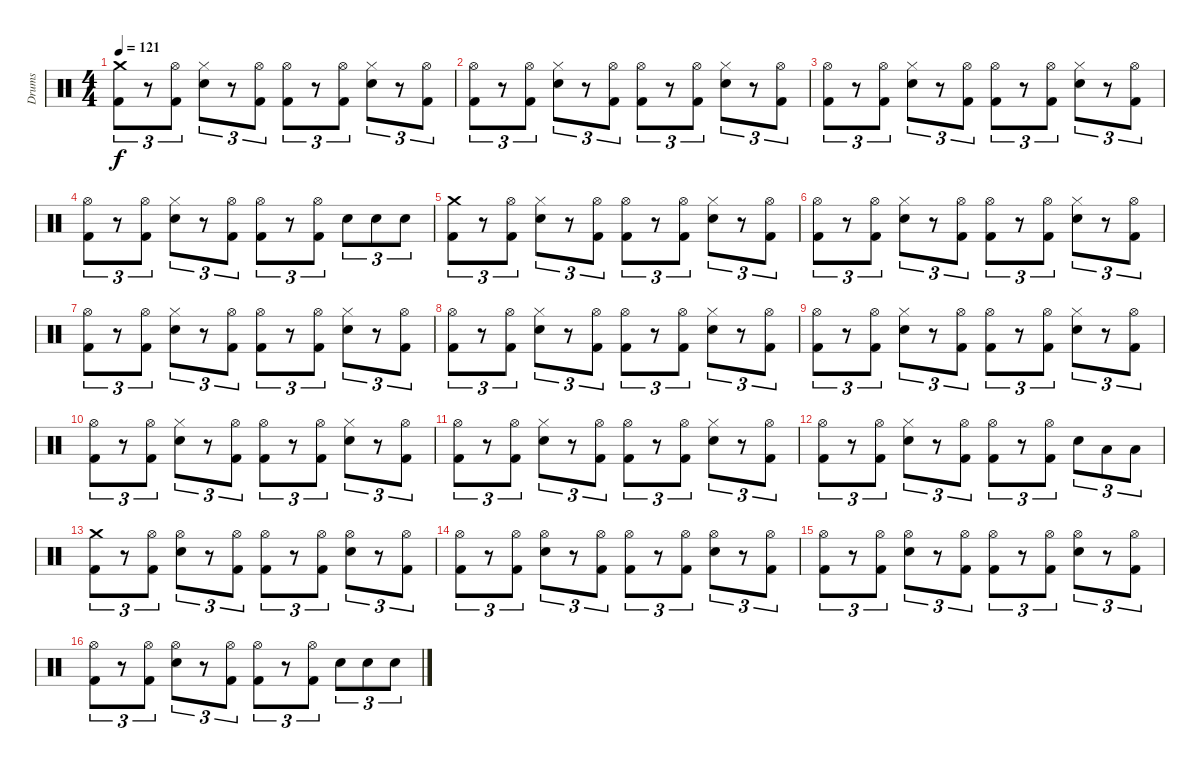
\track ("Drums" "Drums") {instrument percussion}
\staff {score}
\articulation defaults
\ts (4 4)
\tempo 121
\clef neutral
\ks c
("Crash medium (hit)" "Kick (hit) 2").8{tu (3 2) dy f} r.8{tu (3 2)} ("Hi-Hat (open)" "Kick (hit) 2").8{tu (3 2)} ("Hi-Hat (closed)" "Snare (hit) 2").8{tu (3 2)} r.8{tu (3 2)} ("Hi-Hat (open)" "Kick (hit) 2").8{tu (3 2)} ("Hi-Hat (open)" "Kick (hit) 2").8{tu (3 2)} r.8{tu (3 2)} ("Hi-Hat (open)" "Kick (hit) 2").8{tu (3 2)} ("Hi-Hat (closed)" "Snare (hit) 2").8{tu (3 2)} r.8{tu (3 2)} ("Hi-Hat (open)" "Kick (hit) 2").8{tu (3 2)} |
("Hi-Hat (open)" "Kick (hit) 2").8{tu (3 2)} r.8{tu (3 2)} ("Hi-Hat (open)" "Kick (hit) 2").8{tu (3 2)} ("Hi-Hat (closed)" "Snare (hit) 2").8{tu (3 2)} r.8{tu (3 2)} ("Hi-Hat (open)" "Kick (hit) 2").8{tu (3 2)} ("Hi-Hat (open)" "Kick (hit) 2").8{tu (3 2)} r.8{tu (3 2)} ("Hi-Hat (open)" "Kick (hit) 2").8{tu (3 2)} ("Hi-Hat (closed)" "Snare (hit) 2").8{tu (3 2)} r.8{tu (3 2)} ("Hi-Hat (open)" "Kick (hit) 2").8{tu (3 2)} |
("Hi-Hat (open)" "Kick (hit) 2").8{tu (3 2)} r.8{tu (3 2)} ("Hi-Hat (open)" "Kick (hit) 2").8{tu (3 2)} ("Hi-Hat (closed)" "Snare (hit) 2").8{tu (3 2)} r.8{tu (3 2)} ("Hi-Hat (open)" "Kick (hit) 2").8{tu (3 2)} ("Hi-Hat (open)" "Kick (hit) 2").8{tu (3 2)} r.8{tu (3 2)} ("Hi-Hat (open)" "Kick (hit) 2").8{tu (3 2)} ("Hi-Hat (closed)" "Snare (hit) 2").8{tu (3 2)} r.8{tu (3 2)} ("Hi-Hat (open)" "Kick (hit) 2").8{tu (3 2)} |
("Hi-Hat (open)" "Kick (hit) 2").8{tu (3 2)} r.8{tu (3 2)} ("Hi-Hat (open)" "Kick (hit) 2").8{tu (3 2)} ("Hi-Hat (closed)" "Snare (hit) 2").8{tu (3 2)} r.8{tu (3 2)} ("Hi-Hat (open)" "Kick (hit) 2").8{tu (3 2)} ("Hi-Hat (open)" "Kick (hit) 2").8{tu (3 2)} r.8{tu (3 2)} ("Hi-Hat (open)" "Kick (hit) 2").8{tu (3 2)} "Snare (hit) 2".8{tu (3 2)} "Snare (hit) 2".8{tu (3 2)} "Snare (hit) 2".8{tu (3 2)} |
("Crash medium (hit)" "Kick (hit) 2").8{tu (3 2)} r.8{tu (3 2)} ("Hi-Hat (open)" "Kick (hit) 2").8{tu (3 2)} ("Hi-Hat (closed)" "Snare (hit) 2").8{tu (3 2)} r.8{tu (3 2)} ("Hi-Hat (open)" "Kick (hit) 2").8{tu (3 2)} ("Hi-Hat (open)" "Kick (hit) 2").8{tu (3 2)} r.8{tu (3 2)} ("Hi-Hat (open)" "Kick (hit) 2").8{tu (3 2)} ("Hi-Hat (closed)" "Snare (hit) 2").8{tu (3 2)} r.8{tu (3 2)} ("Hi-Hat (open)" "Kick (hit) 2").8{tu (3 2)} |
("Hi-Hat (open)" "Kick (hit) 2").8{tu (3 2)} r.8{tu (3 2)} ("Hi-Hat (open)" "Kick (hit) 2").8{tu (3 2)} ("Hi-Hat (closed)" "Snare (hit) 2").8{tu (3 2)} r.8{tu (3 2)} ("Hi-Hat (open)" "Kick (hit) 2").8{tu (3 2)} ("Hi-Hat (open)" "Kick (hit) 2").8{tu (3 2)} r.8{tu (3 2)} ("Hi-Hat (open)" "Kick (hit) 2").8{tu (3 2)} ("Hi-Hat (closed)" "Snare (hit) 2").8{tu (3 2)} r.8{tu (3 2)} ("Hi-Hat (open)" "Kick (hit) 2").8{tu (3 2)} |
("Hi-Hat (open)" "Kick (hit) 2").8{tu (3 2)} r.8{tu (3 2)} ("Hi-Hat (open)" "Kick (hit) 2").8{tu (3 2)} ("Hi-Hat (closed)" "Snare (hit) 2").8{tu (3 2)} r.8{tu (3 2)} ("Hi-Hat (open)" "Kick (hit) 2").8{tu (3 2)} ("Hi-Hat (open)" "Kick (hit) 2").8{tu (3 2)} r.8{tu (3 2)} ("Hi-Hat (open)" "Kick (hit) 2").8{tu (3 2)} ("Hi-Hat (closed)" "Snare (hit) 2").8{tu (3 2)} r.8{tu (3 2)} ("Hi-Hat (open)" "Kick (hit) 2").8{tu (3 2)} |
("Hi-Hat (open)" "Kick (hit) 2").8{tu (3 2)} r.8{tu (3 2)} ("Hi-Hat (open)" "Kick (hit) 2").8{tu (3 2)} ("Hi-Hat (closed)" "Snare (hit) 2").8{tu (3 2)} r.8{tu (3 2)} ("Hi-Hat (open)" "Kick (hit) 2").8{tu (3 2)} ("Hi-Hat (open)" "Kick (hit) 2").8{tu (3 2)} r.8{tu (3 2)} ("Hi-Hat (open)" "Kick (hit) 2").8{tu (3 2)} ("Hi-Hat (closed)" "Snare (hit) 2").8{tu (3 2)} r.8{tu (3 2)} ("Hi-Hat (open)" "Kick (hit) 2").8{tu (3 2)} |
("Hi-Hat (open)" "Kick (hit) 2").8{tu (3 2)} r.8{tu (3 2)} ("Hi-Hat (open)" "Kick (hit) 2").8{tu (3 2)} ("Hi-Hat (closed)" "Snare (hit) 2").8{tu (3 2)} r.8{tu (3 2)} ("Hi-Hat (open)" "Kick (hit) 2").8{tu (3 2)} ("Hi-Hat (open)" "Kick (hit) 2").8{tu (3 2)} r.8{tu (3 2)} ("Hi-Hat (open)" "Kick (hit) 2").8{tu (3 2)} ("Hi-Hat (closed)" "Snare (hit) 2").8{tu (3 2)} r.8{tu (3 2)} ("Hi-Hat (open)" "Kick (hit) 2").8{tu (3 2)} |
("Hi-Hat (open)" "Kick (hit) 2").8{tu (3 2)} r.8{tu (3 2)} ("Hi-Hat (open)" "Kick (hit) 2").8{tu (3 2)} ("Hi-Hat (closed)" "Snare (hit) 2").8{tu (3 2)} r.8{tu (3 2)} ("Hi-Hat (open)" "Kick (hit) 2").8{tu (3 2)} ("Hi-Hat (open)" "Kick (hit) 2").8{tu (3 2)} r.8{tu (3 2)} ("Hi-Hat (open)" "Kick (hit) 2").8{tu (3 2)} ("Hi-Hat (closed)" "Snare (hit) 2").8{tu (3 2)} r.8{tu (3 2)} ("Hi-Hat (open)" "Kick (hit) 2").8{tu (3 2)} |
("Hi-Hat (open)" "Kick (hit) 2").8{tu (3 2)} r.8{tu (3 2)} ("Hi-Hat (open)" "Kick (hit) 2").8{tu (3 2)} ("Hi-Hat (closed)" "Snare (hit) 2").8{tu (3 2)} r.8{tu (3 2)} ("Hi-Hat (open)" "Kick (hit) 2").8{tu (3 2)} ("Hi-Hat (open)" "Kick (hit) 2").8{tu (3 2)} r.8{tu (3 2)} ("Hi-Hat (open)" "Kick (hit) 2").8{tu (3 2)} ("Hi-Hat (closed)" "Snare (hit) 2").8{tu (3 2)} r.8{tu (3 2)} ("Hi-Hat (open)" "Kick (hit) 2").8{tu (3 2)} |
("Hi-Hat (open)" "Kick (hit) 2").8{tu (3 2)} r.8{tu (3 2)} ("Hi-Hat (open)" "Kick (hit) 2").8{tu (3 2)} ("Hi-Hat (closed)" "Snare (hit) 2").8{tu (3 2)} r.8{tu (3 2)} ("Hi-Hat (open)" "Kick (hit) 2").8{tu (3 2)} ("Hi-Hat (open)" "Kick (hit) 2").8{tu (3 2)} r.8{tu (3 2)} ("Hi-Hat (open)" "Kick (hit) 2").8{tu (3 2)} "Snare (hit) 2".8{tu (3 2)} "Low Tom (hit)".8{tu (3 2)} "Low Floor Tom (hit)".8{tu (3 2)} |
("Crash medium (hit)" "Kick (hit) 2").8{tu (3 2)} r.8{tu (3 2)} ("Hi-Hat (open)" "Kick (hit) 2").8{tu (3 2)} ("Hi-Hat (open)" "Snare (hit) 2").8{tu (3 2)} r.8{tu (3 2)} ("Hi-Hat (open)" "Kick (hit) 2").8{tu (3 2)} ("Hi-Hat (open)" "Kick (hit) 2").8{tu (3 2)} r.8{tu (3 2)} ("Hi-Hat (open)" "Kick (hit) 2").8{tu (3 2)} ("Hi-Hat (open)" "Snare (hit) 2").8{tu (3 2)} r.8{tu (3 2)} ("Hi-Hat (open)" "Kick (hit) 2").8{tu (3 2)} |
("Hi-Hat (open)" "Kick (hit) 2").8{tu (3 2)} r.8{tu (3 2)} ("Hi-Hat (open)" "Kick (hit) 2").8{tu (3 2)} ("Hi-Hat (open)" "Snare (hit) 2").8{tu (3 2)} r.8{tu (3 2)} ("Hi-Hat (open)" "Kick (hit) 2").8{tu (3 2)} ("Hi-Hat (open)" "Kick (hit) 2").8{tu (3 2)} r.8{tu (3 2)} ("Hi-Hat (open)" "Kick (hit) 2").8{tu (3 2)} ("Hi-Hat (open)" "Snare (hit) 2").8{tu (3 2)} r.8{tu (3 2)} ("Hi-Hat (open)" "Kick (hit) 2").8{tu (3 2)} |
("Hi-Hat (open)" "Kick (hit) 2").8{tu (3 2)} r.8{tu (3 2)} ("Hi-Hat (open)" "Kick (hit) 2").8{tu (3 2)} ("Hi-Hat (open)" "Snare (hit) 2").8{tu (3 2)} r.8{tu (3 2)} ("Hi-Hat (open)" "Kick (hit) 2").8{tu (3 2)} ("Hi-Hat (open)" "Kick (hit) 2").8{tu (3 2)} r.8{tu (3 2)} ("Hi-Hat (open)" "Kick (hit) 2").8{tu (3 2)} ("Hi-Hat (open)" "Snare (hit) 2").8{tu (3 2)} r.8{tu (3 2)} ("Hi-Hat (open)" "Kick (hit) 2").8{tu (3 2)} |
("Hi-Hat (open)" "Kick (hit) 2").8{tu (3 2)} r.8{tu (3 2)} ("Hi-Hat (open)" "Kick (hit) 2").8{tu (3 2)} ("Hi-Hat (open)" "Snare (hit) 2").8{tu (3 2)} r.8{tu (3 2)} ("Hi-Hat (open)" "Kick (hit) 2").8{tu (3 2)} ("Hi-Hat (open)" "Kick (hit) 2").8{tu (3 2)} r.8{tu (3 2)} ("Hi-Hat (open)" "Kick (hit) 2").8{tu (3 2)} "Snare (hit) 2".8{tu (3 2)} "Snare (hit) 2".8{tu (3 2)} "Snare (hit) 2".8{tu (3 2)}
